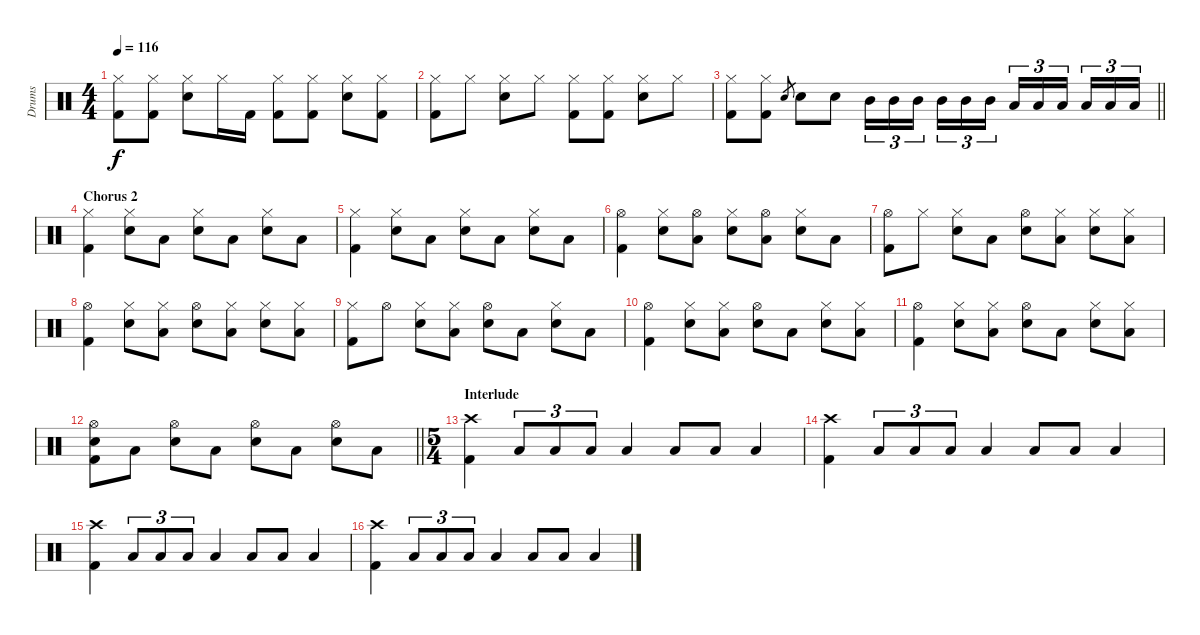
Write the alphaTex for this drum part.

\track ("Drums" "Drums") {instrument percussion}
\staff {score}
\articulation defaults
\ts (4 4)
\tempo 116
\clef neutral
\ks c
("Hi-Hat (closed)" "Kick (hit) 2").8{dy f} ("Hi-Hat (closed)" "Kick (hit) 2").8 ("Hi-Hat (closed)" "Snare (hit) 2").8 "Hi-Hat (closed)".16 "Kick (hit) 2".16 ("Hi-Hat (closed)" "Kick (hit) 2").8 ("Hi-Hat (closed)" "Kick (hit) 2").8 ("Hi-Hat (closed)" "Snare (hit) 2").8 ("Hi-Hat (closed)" "Kick (hit) 2").8 |
("Hi-Hat (closed)" "Kick (hit) 2").8 "Hi-Hat (closed)".8 ("Hi-Hat (closed)" "Snare (hit) 2").8 "Hi-Hat (closed)".8 ("Hi-Hat (closed)" "Kick (hit) 2").8 ("Hi-Hat (closed)" "Kick (hit) 2").8 ("Hi-Hat (closed)" "Snare (hit) 2").8 "Hi-Hat (closed)".8 |
\barLineRight lightlight
("Hi-Hat (closed)" "Kick (hit) 2").8 ("Hi-Hat (closed)" "Kick (hit) 2").8 "Snare (hit) 2".8{gr} "Snare (hit) 2".8 "Snare (hit) 2".8 "Mid Tom (hit)".16{tu (3 2)} "Mid Tom (hit)".16{tu (3 2)} "Mid Tom (hit)".16{tu (3 2) beam splitsecondary} "Mid Tom (hit)".16{tu (3 2)} "Mid Tom (hit)".16{tu (3 2)} "Mid Tom (hit)".16{tu (3 2)} "Low Tom (hit)".16{tu (3 2)} "Low Tom (hit)".16{tu (3 2)} "Low Tom (hit)".16{tu (3 2) beam splitsecondary} "Low Tom (hit)".16{tu (3 2)} "Low Tom (hit)".16{tu (3 2)} "Low Tom (hit)".16{tu (3 2)} |
\section ("" "Chorus 2")
("Hi-Hat (closed)" "Kick (hit) 2").4 ("Hi-Hat (closed)" "Snare (hit) 2").8 "Low Tom (hit)".8 ("Hi-Hat (closed)" "Snare (hit) 2").8 "Low Tom (hit)".8 ("Hi-Hat (closed)" "Snare (hit) 2").8 "Low Tom (hit)".8 |
("Hi-Hat (closed)" "Kick (hit) 2").4 ("Hi-Hat (closed)" "Snare (hit) 2").8 "Low Tom (hit)".8 ("Hi-Hat (closed)" "Snare (hit) 2").8 "Low Tom (hit)".8 ("Hi-Hat (closed)" "Snare (hit) 2").8 "Low Tom (hit)".8 |
("Hi-Hat (open)" "Kick (hit) 2").4 ("Hi-Hat (closed)" "Snare (hit) 2").8 ("Hi-Hat (open)" "Low Tom (hit)").8 ("Hi-Hat (closed)" "Snare (hit) 2").8 ("Hi-Hat (open)" "Low Tom (hit)").8 ("Hi-Hat (closed)" "Snare (hit) 2").8 "Low Tom (hit)".8 |
("Hi-Hat (open)" "Kick (hit) 2").8 "Hi-Hat (closed)".8 ("Hi-Hat (closed)" "Snare (hit) 2").8 "Low Tom (hit)".8 ("Hi-Hat (open)" "Snare (hit) 2").8 ("Hi-Hat (closed)" "Low Tom (hit)").8 ("Hi-Hat (closed)" "Snare (hit) 2").8 ("Hi-Hat (closed)" "Low Tom (hit)").8 |
("Hi-Hat (open)" "Kick (hit) 2").4 ("Hi-Hat (closed)" "Snare (hit) 2").8 ("Hi-Hat (closed)" "Low Tom (hit)").8 ("Hi-Hat (open)" "Snare (hit) 2").8 ("Hi-Hat (closed)" "Low Tom (hit)").8 ("Hi-Hat (closed)" "Snare (hit) 2").8 ("Hi-Hat (closed)" "Low Tom (hit)").8 |
("Hi-Hat (closed)" "Kick (hit) 2").8 "Hi-Hat (open)".8 ("Hi-Hat (closed)" "Snare (hit) 2").8 ("Hi-Hat (closed)" "Low Tom (hit)").8 ("Hi-Hat (open)" "Snare (hit) 2").8 "Low Tom (hit)".8 ("Hi-Hat (closed)" "Snare (hit) 2").8 "Low Tom (hit)".8 |
("Hi-Hat (open)" "Kick (hit) 2").4 ("Hi-Hat (closed)" "Snare (hit) 2").8 ("Hi-Hat (closed)" "Low Tom (hit)").8 ("Hi-Hat (open)" "Snare (hit) 2").8 "Low Tom (hit)".8 ("Hi-Hat (closed)" "Snare (hit) 2").8 ("Hi-Hat (closed)" "Low Tom (hit)").8 |
("Hi-Hat (open)" "Kick (hit) 2").4 ("Hi-Hat (closed)" "Snare (hit) 2").8 ("Hi-Hat (closed)" "Low Tom (hit)").8 ("Hi-Hat (open)" "Snare (hit) 2").8 "Low Tom (hit)".8 ("Hi-Hat (closed)" "Snare (hit) 2").8 ("Hi-Hat (closed)" "Low Tom (hit)").8 |
\barLineRight lightlight
("Hi-Hat (open)" "Snare (hit) 2" "Kick (hit) 2").8 "Low Tom (hit)".8 ("Hi-Hat (open)" "Snare (hit) 2").8 "Low Tom (hit)".8 ("Hi-Hat (open)" "Snare (hit) 2").8 "Low Tom (hit)".8 ("Hi-Hat (open)" "Snare (hit) 2").8 "Low Tom (hit)".8 |
\ts (5 4)
\section ("" "Interlude")
("Crash high (hit)" "Kick (hit) 2").4 "Low Tom (hit)".8{tu (3 2)} "Low Tom (hit)".8{tu (3 2)} "Low Tom (hit)".8{tu (3 2)} "Low Tom (hit)".4 "Low Tom (hit)".8 "Low Tom (hit)".8 "Low Tom (hit)".4 |
("Crash high (hit)" "Kick (hit) 2").4 "Low Tom (hit)".8{tu (3 2)} "Low Tom (hit)".8{tu (3 2)} "Low Tom (hit)".8{tu (3 2)} "Low Tom (hit)".4 "Low Tom (hit)".8 "Low Tom (hit)".8 "Low Tom (hit)".4 |
("Crash high (hit)" "Kick (hit) 2").4 "Low Tom (hit)".8{tu (3 2)} "Low Tom (hit)".8{tu (3 2)} "Low Tom (hit)".8{tu (3 2)} "Low Tom (hit)".4 "Low Tom (hit)".8 "Low Tom (hit)".8 "Low Tom (hit)".4 |
("Crash high (hit)" "Kick (hit) 2").4 "Low Tom (hit)".8{tu (3 2)} "Low Tom (hit)".8{tu (3 2)} "Low Tom (hit)".8{tu (3 2)} "Low Tom (hit)".4 "Low Tom (hit)".8 "Low Tom (hit)".8 "Low Tom (hit)".4
